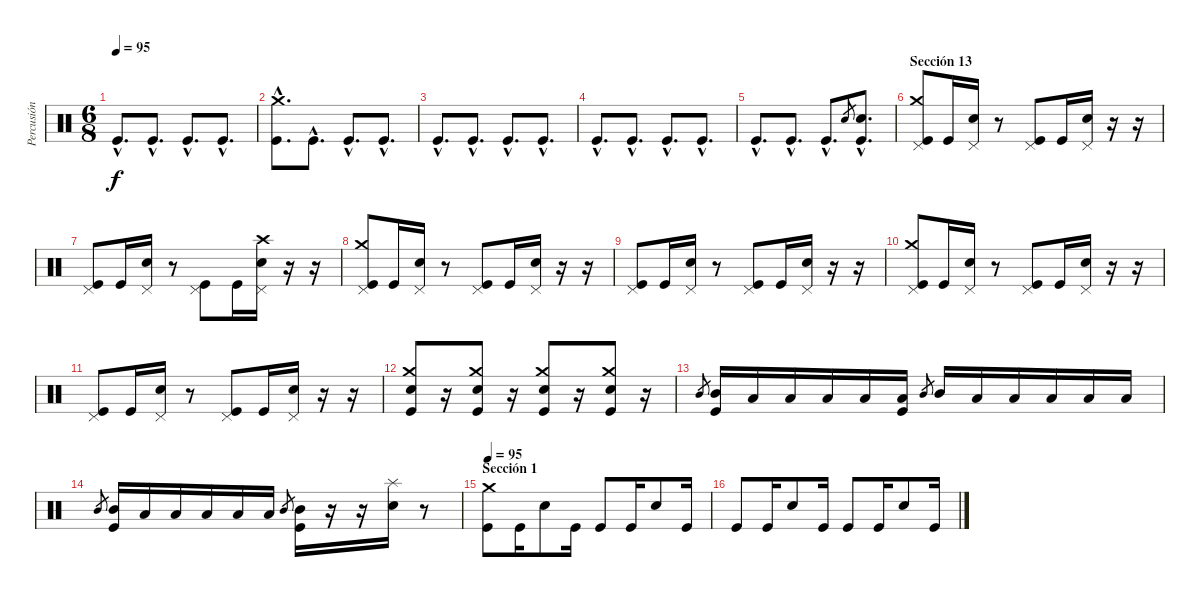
\track ("Percusión" "Percusión") {instrument percussion}
\staff {score}
\articulation defaults
\ts (6 8)
\tempo 95
\clef neutral
\ks c "Kick (hit)"{hac}.8{d dy f} "Kick (hit)"{hac}.8{d} "Kick (hit)"{hac}.8{d} "Kick (hit)"{hac}.8{d}
|
("Crash medium (hit)"{hac} "Kick (hit)"{hac}).8{d} "Kick (hit)"{hac}.8{d} "Kick (hit)"{hac}.8{d} "Kick (hit)"{hac}.8{d} |
"Kick (hit)"{hac}.8{d} "Kick (hit)"{hac}.8{d} "Kick (hit)"{hac}.8{d} "Kick (hit)"{hac}.8{d} |
"Kick (hit)"{hac}.8{d} "Kick (hit)"{hac}.8{d} "Kick (hit)"{hac}.8{d} "Kick (hit)"{hac}.8{d} |
"Kick (hit)"{hac}.8{d} "Kick (hit)"{hac}.8{d} "Kick (hit)"{hac}.8{d} "Electric Snare (hit)".8{gr} ("Electric Snare (hit)"{hac} "Kick (hit)"{hac}).8{d} |
\section ("" "Sección 13")
("Pedal Hi-Hat (hit)" "Crash medium (hit)" "Kick (hit)").8 "Kick (hit)".16 ("Pedal Hi-Hat (hit)" "Electric Snare (hit)").16 r.8 ("Pedal Hi-Hat (hit)" "Kick (hit)").8 "Kick (hit)".16 ("Pedal Hi-Hat (hit)" "Electric Snare (hit)").16 r.16 r.16 |
("Pedal Hi-Hat (hit)" "Kick (hit)").8 "Kick (hit)".16 ("Pedal Hi-Hat (hit)" "Electric Snare (hit)").16 r.8 ("Pedal Hi-Hat (hit)" "Kick (hit)").8 "Kick (hit)".16 ("Pedal Hi-Hat (hit)" "Crash high (hit)" "Electric Snare (hit)").16 r.16 r.16 |
("Pedal Hi-Hat (hit)" "Crash medium (hit)" "Kick (hit)").8 "Kick (hit)".16 ("Pedal Hi-Hat (hit)" "Electric Snare (hit)").16 r.8 ("Pedal Hi-Hat (hit)" "Kick (hit)").8 "Kick (hit)".16 ("Pedal Hi-Hat (hit)" "Electric Snare (hit)").16 r.16 r.16 |
("Pedal Hi-Hat (hit)" "Kick (hit)").8 "Kick (hit)".16 ("Pedal Hi-Hat (hit)" "Electric Snare (hit)").16 r.8 ("Pedal Hi-Hat (hit)" "Kick (hit)").8 "Kick (hit)".16 ("Pedal Hi-Hat (hit)" "Electric Snare (hit)").16 r.16 r.16 |
("Pedal Hi-Hat (hit)" "Crash medium (hit)" "Kick (hit)").8 "Kick (hit)".16 ("Pedal Hi-Hat (hit)" "Electric Snare (hit)").16 r.8 ("Pedal Hi-Hat (hit)" "Kick (hit)").8 "Kick (hit)".16 ("Pedal Hi-Hat (hit)" "Electric Snare (hit)").16 r.16 r.16 |
("Pedal Hi-Hat (hit)" "Kick (hit)").8 "Kick (hit)".16 ("Pedal Hi-Hat (hit)" "Electric Snare (hit)").16 r.8 ("Pedal Hi-Hat (hit)" "Kick (hit)").8 "Kick (hit)".16 ("Pedal Hi-Hat (hit)" "Electric Snare (hit)").16 r.16 r.16 |
("Crash medium (hit)" "Electric Snare (hit)" "Kick (hit)").8 r.16 ("Crash medium (hit)" "Electric Snare (hit)" "Kick (hit)").8 r.16 ("Crash medium (hit)" "Electric Snare (hit)" "Kick (hit)").8 r.16 ("Crash medium (hit)" "Electric Snare (hit)" "Kick (hit)").8 r.16 |
"Mid Tom (hit)".8{gr} ("Mid Tom (hit)" "Kick (hit)").16 "Low Tom (hit)".16 "Low Tom (hit)".16 "Low Tom (hit)".16 "Low Tom (hit)".16 ("Low Tom (hit)" "Kick (hit)").16 "Mid Tom (hit)".8{gr} "Mid Tom (hit)".16 "Low Tom (hit)".16 "Low Tom (hit)".16 "Low Tom (hit)".16 "Low Tom (hit)".16 "Low Tom (hit)".16 |
"Mid Tom (hit)".8{gr} ("Mid Tom (hit)" "Kick (hit)").16 "Low Tom (hit)".16 "Low Tom (hit)".16 "Low Tom (hit)".16 "Low Tom (hit)".16 "Low Tom (hit)".16 "Mid Tom (hit)".8{gr} ("Mid Tom (hit)" "Kick (hit)").16 r.16 r.16 ("Splash (hit)" "Electric Snare (hit)").16 r.8 |
\section ("" "Sección 1")
\tempo 95
("Crash medium (hit)" "Kick (hit)").8 "Kick (hit)".16 "Electric Snare (hit)".8 "Kick (hit)".16 "Kick (hit)".8 "Kick (hit)".16 "Electric Snare (hit)".8 "Kick (hit)".16 |
"Kick (hit)".8 "Kick (hit)".16 "Electric Snare (hit)".8 "Kick (hit)".16 "Kick (hit)".8 "Kick (hit)".16 "Electric Snare (hit)".8 "Kick (hit)".16
